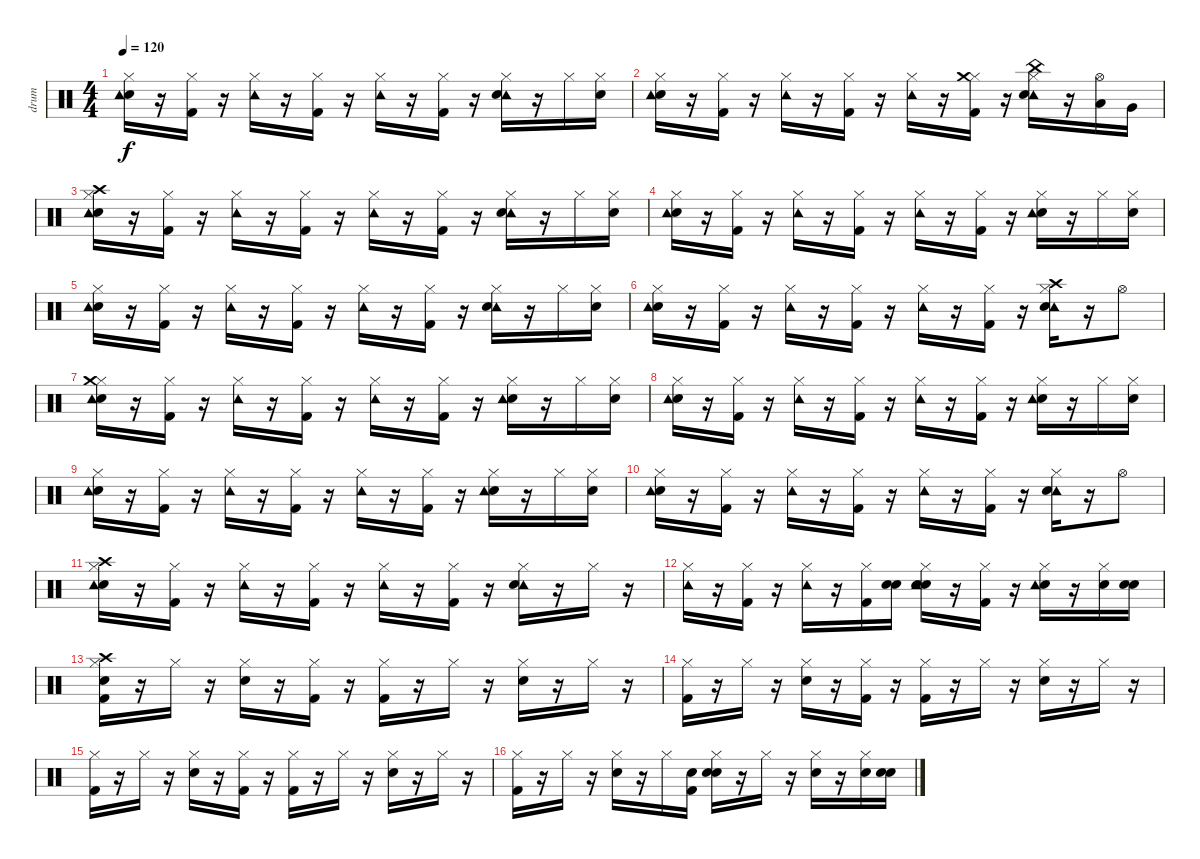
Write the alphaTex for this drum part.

\track ("drum" "drum") {instrument percussion}
\staff {score}
\articulation defaults
\ts (4 4)
\tempo 120
\clef neutral
\ks c
("Snare (hit)" "Tambourine (hit)" "Hi-Hat (closed)").16{dy f} r.16 ("Kick (hit) 2" "Hi-Hat (closed)").16 r.16 ("Hi-Hat (closed)" "Tambourine (hit)").16 r.16 ("Kick (hit) 2" "Hi-Hat (closed)").16 r.16 ("Tambourine (hit)" "Hi-Hat (closed)").16 r.16 ("Kick (hit) 2" "Hi-Hat (closed)").16 r.16 ("Tambourine (hit)" "Hi-Hat (closed)" "Snare (hit) 2").16 r.16 "Hi-Hat (closed)".16 ("Snare (hit)" "Hi-Hat (closed)").16 |
("Snare (hit)" "Tambourine (hit)" "Hi-Hat (closed)").16 r.16 ("Hi-Hat (closed)" "Kick (hit) 2").16 r.16 ("Hi-Hat (closed)" "Tambourine (hit)").16 r.16 ("Hi-Hat (closed)" "Kick (hit) 2").16 r.16 ("Hi-Hat (closed)" "Tambourine (hit)").16 r.16 ("Hi-Hat (closed)" "Crash medium (hit)" "Kick (hit) 2").16 r.16 ("Hi-Hat (closed)" "China (hit)" "Tambourine (hit)" "Snare (hit) 2").16 r.16 ("Low Tom (hit)" "Hi-Hat (open)").16 "Very Low Tom (hit)".16 |
("Snare (hit)" "Crash high (hit)" "Hi-Hat (closed)" "Tambourine (hit)").16 r.16 ("Kick (hit) 2" "Hi-Hat (closed)").16 r.16 ("Hi-Hat (closed)" "Tambourine (hit)").16 r.16 ("Hi-Hat (closed)" "Kick (hit) 2").16 r.16 ("Hi-Hat (closed)" "Tambourine (hit)").16 r.16 ("Kick (hit) 2" "Hi-Hat (closed)").16 r.16 ("Hi-Hat (closed)" "Tambourine (hit)" "Snare (hit) 2").16 r.16 "Hi-Hat (closed)".16 ("Snare (hit)" "Hi-Hat (closed)").16 |
("Snare (hit)" "Hi-Hat (closed)" "Tambourine (hit)").16 r.16 ("Hi-Hat (closed)" "Kick (hit) 2").16 r.16 ("Hi-Hat (closed)" "Tambourine (hit)").16 r.16 ("Hi-Hat (closed)" "Kick (hit) 2").16 r.16 ("Tambourine (hit)" "Hi-Hat (closed)").16 r.16 ("Kick (hit) 2" "Hi-Hat (closed)").16 r.16 ("Snare (hit) 2" "Hi-Hat (closed)" "Tambourine (hit)").16 r.16 "Hi-Hat (closed)".16 ("Snare (hit)" "Hi-Hat (closed)").16 |
("Snare (hit)" "Hi-Hat (closed)" "Tambourine (hit)").16 r.16 ("Kick (hit) 2" "Hi-Hat (closed)").16 r.16 ("Hi-Hat (closed)" "Tambourine (hit)").16 r.16 ("Kick (hit) 2" "Hi-Hat (closed)").16 r.16 ("Hi-Hat (closed)" "Tambourine (hit)").16 r.16 ("Kick (hit) 2" "Hi-Hat (closed)").16 r.16 ("Tambourine (hit)" "Hi-Hat (closed)" "Snare (hit) 2").16 r.16 "Hi-Hat (closed)".16 ("Snare (hit)" "Hi-Hat (closed)").16 |
("Snare (hit)" "Hi-Hat (closed)" "Tambourine (hit)").16 r.16 ("Hi-Hat (closed)" "Kick (hit) 2").16 r.16 ("Tambourine (hit)" "Hi-Hat (closed)").16 r.16 ("Kick (hit) 2" "Hi-Hat (closed)").16 r.16 ("Tambourine (hit)" "Hi-Hat (closed)").16 r.16 ("Hi-Hat (closed)" "Kick (hit) 2").16 r.16 ("Tambourine (hit)" "Crash high (hit)" "Snare (hit) 2" "Hi-Hat (closed)").16 r.16 "Hi-Hat (open)".8 |
("Snare (hit)" "Hi-Hat (closed)" "Tambourine (hit)" "Crash medium (hit)").16 r.16 ("Kick (hit) 2" "Hi-Hat (closed)").16 r.16 ("Hi-Hat (closed)" "Tambourine (hit)").16 r.16 ("Kick (hit) 2" "Hi-Hat (closed)").16 r.16 ("Tambourine (hit)" "Hi-Hat (closed)").16 r.16 ("Kick (hit) 2" "Hi-Hat (closed)").16 r.16 ("Snare (hit) 2" "Tambourine (hit)" "Hi-Hat (closed)").16 r.16 "Hi-Hat (closed)".16 ("Snare (hit)" "Hi-Hat (closed)").16 |
("Snare (hit)" "Tambourine (hit)" "Hi-Hat (closed)").16 r.16 ("Kick (hit) 2" "Hi-Hat (closed)").16 r.16 ("Hi-Hat (closed)" "Tambourine (hit)").16 r.16 ("Hi-Hat (closed)" "Kick (hit) 2").16 r.16 ("Hi-Hat (closed)" "Tambourine (hit)").16 r.16 ("Hi-Hat (closed)" "Kick (hit) 2").16 r.16 ("Snare (hit) 2" "Tambourine (hit)" "Hi-Hat (closed)").16 r.16 "Hi-Hat (closed)".16 ("Snare (hit)" "Hi-Hat (closed)").16 |
("Snare (hit)" "Hi-Hat (closed)" "Tambourine (hit)").16 r.16 ("Hi-Hat (closed)" "Kick (hit) 2").16 r.16 ("Hi-Hat (closed)" "Tambourine (hit)").16 r.16 ("Hi-Hat (closed)" "Kick (hit) 2").16 r.16 ("Tambourine (hit)" "Hi-Hat (closed)").16 r.16 ("Kick (hit) 2" "Hi-Hat (closed)").16 r.16 ("Snare (hit) 2" "Hi-Hat (closed)" "Tambourine (hit)").16 r.16 "Hi-Hat (closed)".16 ("Snare (hit)" "Hi-Hat (closed)").16 |
("Snare (hit)" "Tambourine (hit)" "Hi-Hat (closed)").16 r.16 ("Kick (hit) 2" "Hi-Hat (closed)").16 r.16 ("Tambourine (hit)" "Hi-Hat (closed)").16 r.16 ("Kick (hit) 2" "Hi-Hat (closed)").16 r.16 ("Tambourine (hit)" "Hi-Hat (closed)").16 r.16 ("Hi-Hat (closed)" "Kick (hit) 2").16 r.16 ("Hi-Hat (closed)" "Tambourine (hit)" "Snare (hit) 2").16 r.16 "Hi-Hat (open)".8 |
("Snare (hit)" "Crash high (hit)" "Hi-Hat (closed)" "Tambourine (hit)").16 r.16 ("Kick (hit) 2" "Hi-Hat (closed)").16 r.16 ("Tambourine (hit)" "Hi-Hat (closed)").16 r.16 ("Hi-Hat (closed)" "Kick (hit) 2").16 r.16 ("Tambourine (hit)" "Hi-Hat (closed)").16 r.16 ("Kick (hit) 2" "Hi-Hat (closed)").16 r.16 ("Tambourine (hit)" "Snare (hit) 2" "Hi-Hat (closed)").16 r.16 "Hi-Hat (closed)".16 r.16 |
("Tambourine (hit)" "Hi-Hat (closed)").16 r.16 ("Kick (hit) 2" "Hi-Hat (closed)").16 r.16 ("Tambourine (hit)" "Hi-Hat (closed)").16 r.16 ("Kick (hit) 2" "Hi-Hat (closed)").16 ("Snare (hit)" "Snare (hit) 2").16 ("Snare (hit)" "Snare (hit) 2" "Tambourine (hit)" "Hi-Hat (closed)").16 r.16 ("Kick (hit) 2" "Hi-Hat (closed)").16 r.16 ("Snare (hit) 2" "Hi-Hat (closed)" "Tambourine (hit)").16 r.16 ("Snare (hit) 2" "Hi-Hat (closed)").16 ("Snare (hit)" "Snare (hit) 2").16 |
("Snare (hit)" "Crash high (hit)" "Kick (hit) 2" "Hi-Hat (closed)").16 r.16 "Hi-Hat (closed)".16 r.16 ("Hi-Hat (closed)" "Snare (hit) 2").16 r.16 ("Kick (hit) 2" "Hi-Hat (closed)").16 r.16 ("Kick (hit) 2" "Hi-Hat (closed)").16 r.16 "Hi-Hat (closed)".16 r.16 ("Hi-Hat (closed)" "Snare (hit) 2").16 r.16 "Hi-Hat (closed)".16 r.16 |
("Hi-Hat (closed)" "Kick (hit) 2").16 r.16 "Hi-Hat (closed)".16 r.16 ("Hi-Hat (closed)" "Snare (hit) 2").16 r.16 ("Kick (hit) 2" "Hi-Hat (closed)").16 r.16 ("Kick (hit) 2" "Hi-Hat (closed)").16 r.16 "Hi-Hat (closed)".16 r.16 ("Hi-Hat (closed)" "Snare (hit) 2").16 r.16 "Hi-Hat (closed)".16 r.16 |
("Kick (hit) 2" "Hi-Hat (closed)").16 r.16 "Hi-Hat (closed)".16 r.16 ("Hi-Hat (closed)" "Snare (hit) 2").16 r.16 ("Hi-Hat (closed)" "Kick (hit) 2").16 r.16 ("Hi-Hat (closed)" "Kick (hit) 2").16 r.16 "Hi-Hat (closed)".16 r.16 ("Hi-Hat (closed)" "Snare (hit) 2").16 r.16 "Hi-Hat (closed)".16 r.16 |
("Kick (hit) 2" "Hi-Hat (closed)").16 r.16 "Hi-Hat (closed)".16 r.16 ("Hi-Hat (closed)" "Snare (hit) 2").16 r.16 "Hi-Hat (closed)".16 ("Snare (hit)" "Kick (hit) 2").16 ("Snare (hit)" "Snare (hit) 2" "Hi-Hat (closed)").16 r.16 "Hi-Hat (closed)".16 r.16 ("Hi-Hat (closed)" "Snare (hit) 2").16 r.16 ("Snare (hit) 2" "Hi-Hat (closed)").16 ("Snare (hit)" "Snare (hit) 2").16
